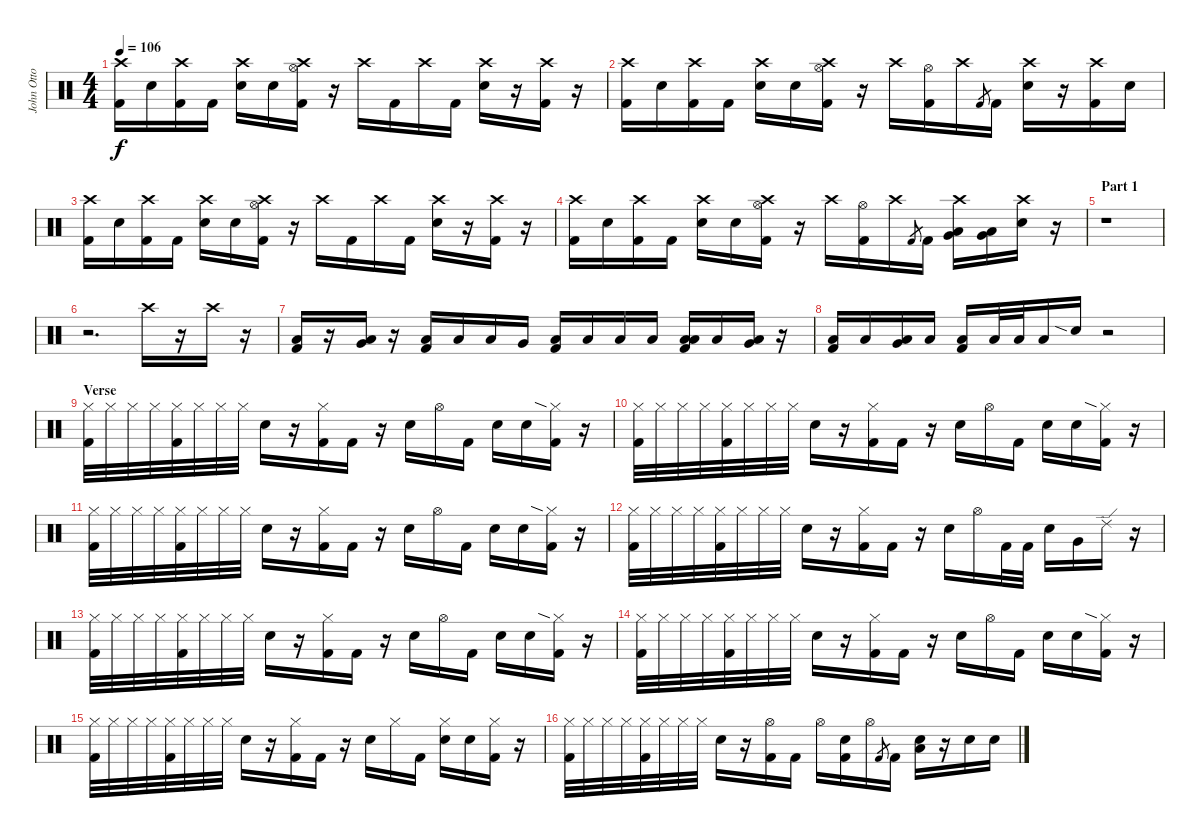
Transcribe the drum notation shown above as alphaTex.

\track ("John Otto - Drums" "John Otto ") {instrument percussion}
\staff {score}
\articulation defaults
\ts (4 4)
\tempo 106
\clef neutral
\ks c
("Crash high (hit)" "Kick (hit) 2").16{dy f} "Snare (hit) 2".16 ("Crash high (hit)" "Kick (hit) 2").16 "Kick (hit) 2".16 ("Crash high (hit)" "Snare (hit) 2").16 "Snare (hit) 2".16 ("Crash high (hit)" "Hi-Hat (open)" "Kick (hit) 2").16 r.16 "Crash high (hit)".16 "Kick (hit) 2".16 "Crash high (hit)".16 "Kick (hit) 2".16 ("Crash high (hit)" "Snare (hit) 2").16 r.16 ("Crash high (hit)" "Kick (hit) 2").16 r.16 |
("Crash high (hit)" "Kick (hit) 2").16 "Snare (hit) 2".16 ("Crash high (hit)" "Kick (hit) 2").16 "Kick (hit) 2".16 ("Crash high (hit)" "Snare (hit) 2").16 "Snare (hit) 2".16 ("Crash high (hit)" "Hi-Hat (open)" "Kick (hit) 2").16 r.16 "Crash high (hit)".16 ("Hi-Hat (open)" "Kick (hit) 2").16 "Crash high (hit)".16 "Kick (hit) 2".8{gr} "Kick (hit) 2".16 ("Crash high (hit)" "Snare (hit) 2").16 r.16 ("Crash high (hit)" "Kick (hit) 2").16 "Snare (hit) 2".16 |
("Crash high (hit)" "Kick (hit) 2").16 "Snare (hit) 2".16 ("Crash high (hit)" "Kick (hit) 2").16 "Kick (hit) 2".16 ("Crash high (hit)" "Snare (hit) 2").16 "Snare (hit) 2".16 ("Crash high (hit)" "Hi-Hat (open)" "Kick (hit) 2").16 r.16 "Crash high (hit)".16 "Kick (hit) 2".16 "Crash high (hit)".16 "Kick (hit) 2".16 ("Crash high (hit)" "Snare (hit) 2").16 r.16 ("Crash high (hit)" "Kick (hit) 2").16 r.16 |
("Crash high (hit)" "Kick (hit) 2").16 "Snare (hit) 2".16 ("Crash high (hit)" "Kick (hit) 2").16 "Kick (hit) 2".16 ("Crash high (hit)" "Snare (hit) 2").16 "Snare (hit) 2".16 ("Crash high (hit)" "Hi-Hat (open)" "Kick (hit) 2").16 r.16 "Crash high (hit)".16 ("Hi-Hat (open)" "Kick (hit) 2").16 "Crash high (hit)".16 "Kick (hit) 2".8{gr} "Kick (hit) 2".16 ("Crash high (hit)" "Very Low Tom (hit)" "Low Floor Tom (hit)").16 ("Very Low Tom (hit)" "Low Floor Tom (hit)").16 ("Crash high (hit)" "Snare (hit) 2").16 r.16 |
\section ("" "Part 1")
r.1 |
r.2{d} "Crash high (hit)".16 r.16 "Crash high (hit)".16 r.16 |
("Low Floor Tom (hit)" "Kick (hit) 2").16 r.16 ("Very Low Tom (hit)" "Low Floor Tom (hit)").16 r.16 ("Low Floor Tom (hit)" "Kick (hit) 2").16 "Low Floor Tom (hit)".16 "Low Floor Tom (hit)".16 "Very Low Tom (hit)".16 ("Low Floor Tom (hit)" "Kick (hit) 2").16 "Low Tom (hit)".16 "Low Floor Tom (hit)".16 "Low Floor Tom (hit)".16 ("Low Tom (hit)" "Low Floor Tom (hit)" "Kick (hit) 2").16 "Low Floor Tom (hit)".16 ("Very Low Tom (hit)" "Low Floor Tom (hit)").16 r.16 |
("Low Floor Tom (hit)" "Kick (hit) 2").16 "Low Floor Tom (hit)".16 ("Very Low Tom (hit)" "Low Floor Tom (hit)").16 "Low Floor Tom (hit)".16 ("Low Floor Tom (hit)" "Kick (hit) 2").16 "Low Tom (hit)".32 "Low Tom (hit)".32 "Low Floor Tom (hit)".16 "Snare (hit) 2"{sia}.16 r.2 |
\section ("" "Verse")
("Hi-Hat (closed)" "Kick (hit) 2").32 "Hi-Hat (closed)".32 "Hi-Hat (closed)".32 "Hi-Hat (closed)".32 ("Hi-Hat (closed)" "Kick (hit) 2").32 "Hi-Hat (closed)".32 "Hi-Hat (closed)".32 "Hi-Hat (closed)".32 "Snare (hit) 2".16 r.16 ("Hi-Hat (closed)" "Kick (hit) 2").16 "Kick (hit) 2".16 r.16 "Snare (hit) 2".16 "Hi-Hat (open)".16 "Kick (hit) 2".16 "Snare (hit) 2".16 "Snare (hit) 2".16 ("Hi-Hat (closed)"{sia} "Kick (hit) 2").16 r.16 |
("Hi-Hat (closed)" "Kick (hit) 2").32 "Hi-Hat (closed)".32 "Hi-Hat (closed)".32 "Hi-Hat (closed)".32 ("Hi-Hat (closed)" "Kick (hit) 2").32 "Hi-Hat (closed)".32 "Hi-Hat (closed)".32 "Hi-Hat (closed)".32 "Snare (hit) 2".16 r.16 ("Hi-Hat (closed)" "Kick (hit) 2").16 "Kick (hit) 2".16 r.16 "Snare (hit) 2".16 "Hi-Hat (open)".16 "Kick (hit) 2".16 "Snare (hit) 2".16 "Snare (hit) 2".16 ("Hi-Hat (closed)"{sia} "Kick (hit) 2").16 r.16 |
("Hi-Hat (closed)" "Kick (hit) 2").32 "Hi-Hat (closed)".32 "Hi-Hat (closed)".32 "Hi-Hat (closed)".32 ("Hi-Hat (closed)" "Kick (hit) 2").32 "Hi-Hat (closed)".32 "Hi-Hat (closed)".32 "Hi-Hat (closed)".32 "Snare (hit) 2".16 r.16 ("Hi-Hat (closed)" "Kick (hit) 2").16 "Kick (hit) 2".16 r.16 "Snare (hit) 2".16 "Hi-Hat (open)".16 "Kick (hit) 2".16 "Snare (hit) 2".16 "Snare (hit) 2".16 ("Hi-Hat (closed)"{sia} "Kick (hit) 2").16 r.16 |
("Hi-Hat (closed)" "Kick (hit) 2").32 "Hi-Hat (closed)".32 "Hi-Hat (closed)".32 "Hi-Hat (closed)".32 ("Hi-Hat (closed)" "Kick (hit) 2").32 "Hi-Hat (closed)".32 "Hi-Hat (closed)".32 "Hi-Hat (closed)".32 "Snare (hit) 2".16 r.16 ("Hi-Hat (closed)" "Kick (hit) 2").16 "Kick (hit) 2".16 r.16 "Snare (hit) 2".16 "Hi-Hat (open)".16 "Kick (hit) 2".32 "Kick (hit) 2".32 "Snare (hit) 2".16 "Very Low Tom (hit)".16 "Ride (edge) 2".16 r.16 |
("Hi-Hat (closed)" "Kick (hit) 2").32 "Hi-Hat (closed)".32 "Hi-Hat (closed)".32 "Hi-Hat (closed)".32 ("Hi-Hat (closed)" "Kick (hit) 2").32 "Hi-Hat (closed)".32 "Hi-Hat (closed)".32 "Hi-Hat (closed)".32 "Snare (hit) 2".16 r.16 ("Hi-Hat (closed)" "Kick (hit) 2").16 "Kick (hit) 2".16 r.16 "Snare (hit) 2".16 "Hi-Hat (open)".16 "Kick (hit) 2".16 "Snare (hit) 2".16 "Snare (hit) 2".16 ("Hi-Hat (closed)"{sia} "Kick (hit) 2").16 r.16 |
("Hi-Hat (closed)" "Kick (hit) 2").32 "Hi-Hat (closed)".32 "Hi-Hat (closed)".32 "Hi-Hat (closed)".32 ("Hi-Hat (closed)" "Kick (hit) 2").32 "Hi-Hat (closed)".32 "Hi-Hat (closed)".32 "Hi-Hat (closed)".32 "Snare (hit) 2".16 r.16 ("Hi-Hat (closed)" "Kick (hit) 2").16 "Kick (hit) 2".16 r.16 "Snare (hit) 2".16 "Hi-Hat (open)".16 "Kick (hit) 2".16 "Snare (hit) 2".16 "Snare (hit) 2".16 ("Hi-Hat (closed)"{sia} "Kick (hit) 2").16 r.16 |
("Hi-Hat (closed)" "Kick (hit) 2").32 "Hi-Hat (closed)".32 "Hi-Hat (closed)".32 "Hi-Hat (closed)".32 ("Hi-Hat (closed)" "Kick (hit) 2").32 "Hi-Hat (closed)".32 "Hi-Hat (closed)".32 "Hi-Hat (closed)".32 "Snare (hit) 2".16 r.16 ("Hi-Hat (closed)" "Kick (hit) 2").16 "Kick (hit) 2".16 r.16 "Snare (hit) 2".16 "Hi-Hat (closed)".16 "Kick (hit) 2".16 ("Hi-Hat (closed)" "Snare (hit) 2").16 "Snare (hit) 2".16 ("Hi-Hat (closed)" "Kick (hit) 2").16 r.16 |
("Hi-Hat (closed)" "Kick (hit) 2").32 "Hi-Hat (closed)".32 "Hi-Hat (closed)".32 "Hi-Hat (closed)".32 ("Hi-Hat (closed)" "Kick (hit) 2").32 "Hi-Hat (closed)".32 "Hi-Hat (closed)".32 "Hi-Hat (closed)".32 "Snare (hit) 2".16 r.16 ("Hi-Hat (open)" "Kick (hit) 2").16 "Kick (hit) 2".16 "Hi-Hat (open)".16 ("Snare (hit) 2" "Kick (hit) 2").16 "Hi-Hat (open)".16 "Kick (hit) 2".8{gr} "Kick (hit) 2".16 ("Snare (hit) 2" "Low Floor Tom (hit)").16 r.16 "Snare (hit) 2".16 "Snare (hit) 2".16
